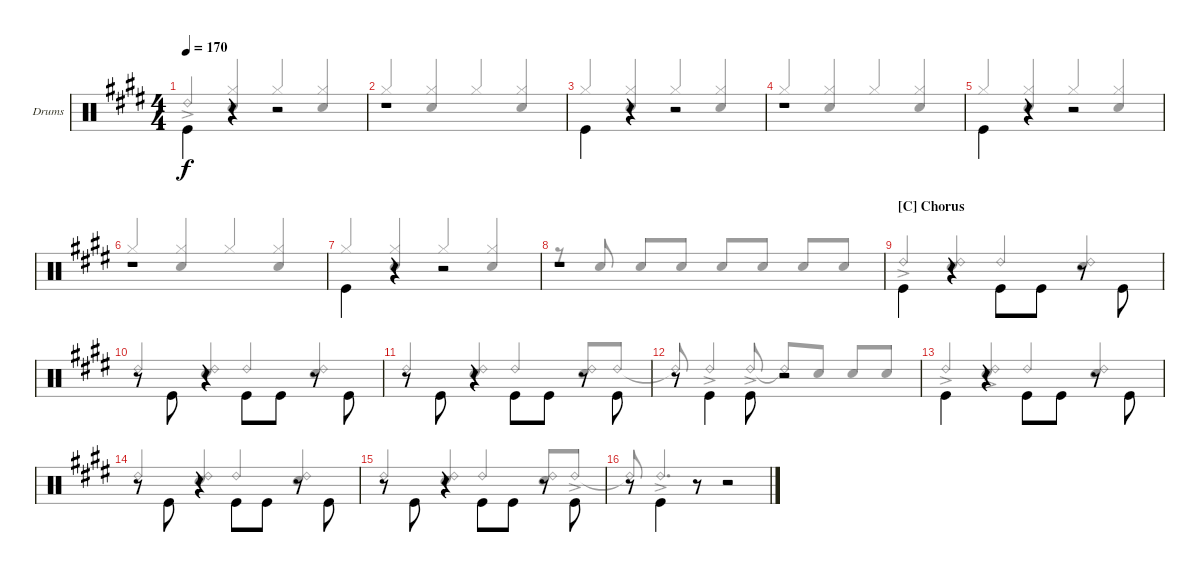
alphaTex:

\bracketExtendMode groupsimilarinstruments
\firstSystemTrackNameOrientation horizontal
\otherSystemsTrackNameOrientation horizontal
\track ("Drums" "Drums") {instrument percussion}
\staff {score}
\articulation defaults
\voice
\ts (4 4)
\tempo 170
\clef neutral
\scale
1.06557
\ks e "Kick (hit)".4{dy f beam invert}
r.4 r.2 |
\scale
0.934426 r.1 |
\scale
1.06557 "Kick (hit)".4{beam invert} r.4 r.2 |
\scale
0.934426 r.1 |
\scale
1.06557 "Kick (hit)".4{beam invert} r.4 r.2 |
\scale
0.934426 r.1 |
\scale
1.06557 "Kick (hit)".4{beam invert} r.4 r.2 |
\scale
0.934426 r.1 |
\section ("C" "Chorus")
\scale
1.06557 "Kick (hit)".4{beam invert} r.4{beam invert} "Kick (hit)".8{beam invert} "Kick (hit)".8 r.8 "Kick (hit)".8{beam invert} |
\scale
0.934426 r.8 "Kick (hit)".8{beam invert} r.4 "Kick (hit)".8{beam invert} "Kick (hit)".8 r.8 "Kick (hit)".8{beam invert} |
\scale
1.06557 r.8 "Kick (hit)".8{beam invert} r.4 "Kick (hit)".8{beam invert} "Kick (hit)".8 r.8 "Kick (hit)".8{beam invert} |
\scale
0.934426 r.8 "Kick (hit)".4{beam invert} "Kick (hit)".8{beam invert} r.2 |
\scale
1.06557 "Kick (hit)".4{beam invert} r.4{beam invert} "Kick (hit)".8{beam invert} "Kick (hit)".8 r.8 "Kick (hit)".8{beam invert} |
\scale
0.934426 r.8 "Kick (hit)".8{beam invert} r.4 "Kick (hit)".8{beam invert} "Kick (hit)".8 r.8 "Kick (hit)".8{beam invert} |
\scale
1.06557 r.8 "Kick (hit)".8{beam invert} r.4 "Kick (hit)".8{beam invert} "Kick (hit)".8 r.8 "Kick (hit)".8{beam invert} |
\scale
0.934426 r.8 "Kick (hit)".4{beam invert} r.8 r.2
\voice
\clef neutral
\ottava regular
\simile none
\scale
1.06557
\ks e "Ride (bell) 2"{ac}.4{dy f beam invert}
("Snare (hit) 2" "Hi-Hat (closed)").4{beam invert} "Hi-Hat (closed)".4{beam invert} ("Snare (hit) 2" "Hi-Hat (closed)").4{beam invert} |
\scale
0.934426 "Hi-Hat (closed)".4{beam invert} ("Snare (hit) 2" "Hi-Hat (closed)").4{beam invert} "Hi-Hat (closed)".4{beam invert} ("Snare (hit) 2" "Hi-Hat (closed)").4{beam invert} |
\scale
1.06557 "Hi-Hat (closed)".4{beam invert} ("Snare (hit) 2" "Hi-Hat (closed)").4{beam invert} "Hi-Hat (closed)".4{beam invert} ("Snare (hit) 2" "Hi-Hat (closed)").4{beam invert} |
\scale
0.934426 "Hi-Hat (closed)".4{beam invert} ("Snare (hit) 2" "Hi-Hat (closed)").4{beam invert} "Hi-Hat (closed)".4{beam invert} ("Snare (hit) 2" "Hi-Hat (closed)").4{beam invert} |
\scale
1.06557 "Hi-Hat (closed)".4{beam invert} ("Snare (hit) 2" "Hi-Hat (closed)").4{beam invert} "Hi-Hat (closed)".4{beam invert} ("Snare (hit) 2" "Hi-Hat (closed)").4{beam invert} |
\scale
0.934426 "Hi-Hat (closed)".4{beam invert} ("Snare (hit) 2" "Hi-Hat (closed)").4{beam invert} "Hi-Hat (closed)".4{beam invert} ("Snare (hit) 2" "Hi-Hat (closed)").4{beam invert} |
\scale
1.06557 "Hi-Hat (closed)".4{beam invert} ("Snare (hit) 2" "Hi-Hat (closed)").4{beam invert} "Hi-Hat (closed)".4{beam invert} ("Snare (hit) 2" "Hi-Hat (closed)").4{beam invert} |
\scale
0.934426 r.8 "Snare (hit) 2".8{beam invert} "Snare (hit) 2".8{beam invert} "Snare (hit) 2".8 "Snare (hit) 2".8{beam invert} "Snare (hit) 2".8 "Snare (hit) 2".8{beam invert} "Snare (hit) 2".8 |
\scale
1.06557 "Ride (bell) 2"{ac}.4{beam invert} ("Ride (bell) 2" "Snare (hit) 2").4{beam invert} "Ride (bell) 2".4{beam invert} ("Ride (bell) 2" "Snare (hit) 2").4{beam invert} |
\scale
0.934426 "Ride (bell) 2".4{beam invert} ("Ride (bell) 2" "Snare (hit) 2").4{beam invert} "Ride (bell) 2".4{beam invert} ("Ride (bell) 2" "Snare (hit) 2").4{beam invert} |
\scale
1.06557 "Ride (bell) 2".4{beam invert} ("Ride (bell) 2" "Snare (hit) 2").4{beam invert} "Ride (bell) 2".4{beam invert} ("Ride (bell) 2" "Snare (hit) 2").8{beam invert} "Ride (bell) 2".8 |
\scale
0.934426 "Ride (bell) 2"{t}.8{beam invert} "Ride (bell) 2"{ac}.4{beam invert} "Ride (bell) 2"{ac}.8{beam invert} "Ride (bell) 2"{t}.8{beam invert} "Snare (hit) 2".8 "Snare (hit) 2".8{beam invert} "Snare (hit) 2".8 |
\scale
1.06557 "Ride (bell) 2"{ac}.4{beam invert} ("Ride (bell) 2"{ac} "Snare (hit) 2"{ac}).4{beam invert} "Ride (bell) 2".4{beam invert} ("Ride (bell) 2" "Snare (hit) 2").4{beam invert} |
\scale
0.934426 "Ride (bell) 2".4{beam invert} ("Ride (bell) 2" "Snare (hit) 2").4{beam invert} "Ride (bell) 2".4{beam invert} ("Ride (bell) 2" "Snare (hit) 2").4{beam invert} |
\scale
1.06557 "Ride (bell) 2".4{beam invert} ("Ride (bell) 2" "Snare (hit) 2").4{beam invert} "Ride (bell) 2".4{beam invert} ("Ride (bell) 2" "Snare (hit) 2").8{beam invert} "Ride (bell) 2"{ac}.8 |
\scale
0.934426 "Ride (bell) 2"{t}.8{beam invert} "Ride (bell) 2"{ac}.4{d beam invert} r.2
